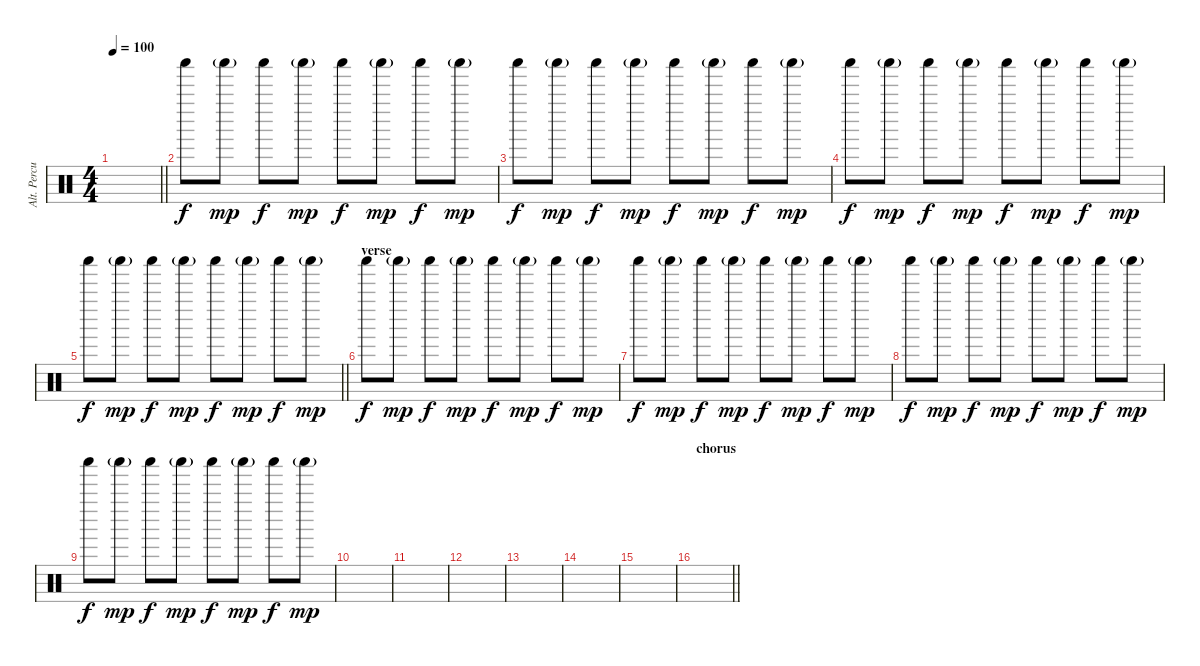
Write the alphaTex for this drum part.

\track ("Alt. Percu" "Alt. Percu") {instrument percussion}
\staff {score}
\articulation defaults
\ts (4 4)
\tempo 100
\clef neutral
\barLineRight lightlight
\ks c
|
"Shaker (hit)".8 "Shaker (hit)"{g}.8{dy mp} "Shaker (hit)".8{dy f} "Shaker (hit)"{g}.8{dy mp} "Shaker (hit)".8{dy f} "Shaker (hit)"{g}.8{dy mp} "Shaker (hit)".8{dy f} "Shaker (hit)"{g}.8{dy mp} |
"Shaker (hit)".8{dy f} "Shaker (hit)"{g}.8{dy mp} "Shaker (hit)".8{dy f} "Shaker (hit)"{g}.8{dy mp} "Shaker (hit)".8{dy f} "Shaker (hit)"{g}.8{dy mp} "Shaker (hit)".8{dy f} "Shaker (hit)"{g}.8{dy mp} |
"Shaker (hit)".8{dy f} "Shaker (hit)"{g}.8{dy mp} "Shaker (hit)".8{dy f} "Shaker (hit)"{g}.8{dy mp} "Shaker (hit)".8{dy f} "Shaker (hit)"{g}.8{dy mp} "Shaker (hit)".8{dy f} "Shaker (hit)"{g}.8{dy mp} |
\barLineRight lightlight "Shaker (hit)".8{dy f} "Shaker (hit)"{g}.8{dy mp} "Shaker (hit)".8{dy f} "Shaker (hit)"{g}.8{dy mp} "Shaker (hit)".8{dy f} "Shaker (hit)"{g}.8{dy mp} "Shaker (hit)".8{dy f} "Shaker (hit)"{g}.8{dy mp}
|
\section ("" "verse")
"Shaker (hit)".8{dy f} "Shaker (hit)"{g}.8{dy mp} "Shaker (hit)".8{dy f} "Shaker (hit)"{g}.8{dy mp} "Shaker (hit)".8{dy f} "Shaker (hit)"{g}.8{dy mp} "Shaker (hit)".8{dy f} "Shaker (hit)"{g}.8{dy mp} |
"Shaker (hit)".8{dy f} "Shaker (hit)"{g}.8{dy mp} "Shaker (hit)".8{dy f} "Shaker (hit)"{g}.8{dy mp} "Shaker (hit)".8{dy f} "Shaker (hit)"{g}.8{dy mp} "Shaker (hit)".8{dy f} "Shaker (hit)"{g}.8{dy mp} |
"Shaker (hit)".8{dy f} "Shaker (hit)"{g}.8{dy mp} "Shaker (hit)".8{dy f} "Shaker (hit)"{g}.8{dy mp} "Shaker (hit)".8{dy f} "Shaker (hit)"{g}.8{dy mp} "Shaker (hit)".8{dy f} "Shaker (hit)"{g}.8{dy mp} |
"Shaker (hit)".8{dy f} "Shaker (hit)"{g}.8{dy mp} "Shaker (hit)".8{dy f} "Shaker (hit)"{g}.8{dy mp} "Shaker (hit)".8{dy f} "Shaker (hit)"{g}.8{dy mp} "Shaker (hit)".8{dy f} "Shaker (hit)"{g}.8{dy mp} |
|
|
|
|
|
|
\section ("" "chorus")
\barLineRight lightlight
